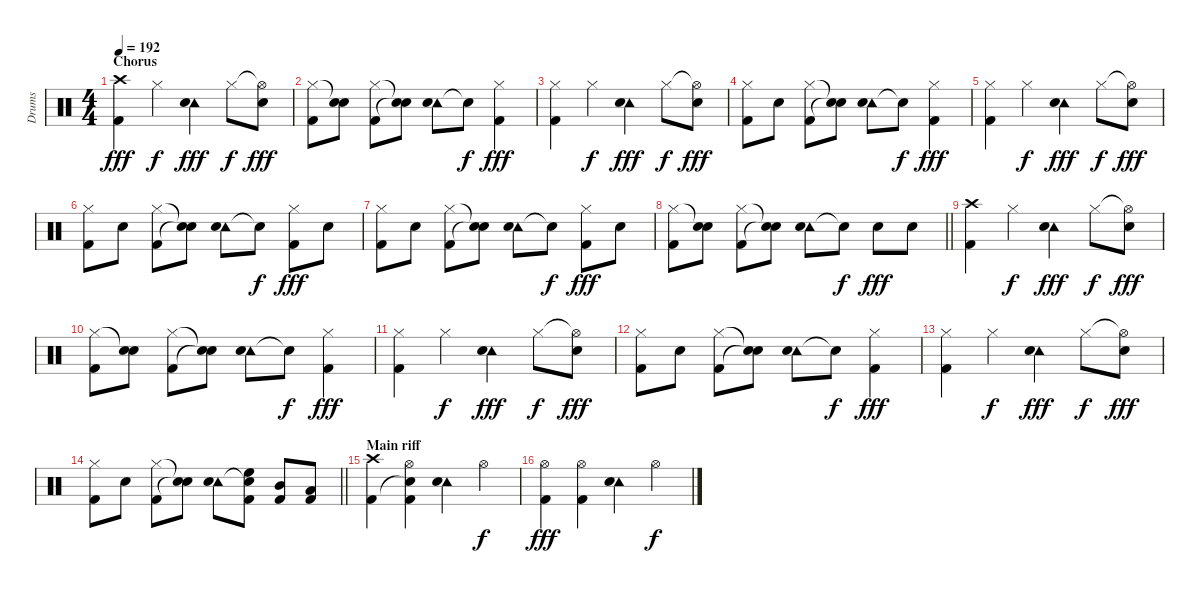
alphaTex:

\track ("Drums" "Drums") {instrument percussion}
\staff {score}
\articulation defaults
\ts (4 4)
\section ("" "Chorus")
\tempo 192
\clef neutral
\ks c
("Crash high (hit)" "Kick (hit) 2").4{dy fff} "Hi-Hat (closed)".4{dy f} ("Tambourine (hit)" "Snare (hit) 2").4{dy fff} "Hi-Hat (closed)".8{dy f} ("Hi-Hat (open)"{t} "Snare (hit) 2").8{dy fff} |
("Hi-Hat (closed)" "Kick (hit) 2").8 ("Snare (hit)"{t} "Snare (hit) 2").8 ("Hi-Hat (closed)" "Kick (hit) 2").8 ("Snare (hit)"{t} "Snare (hit)"{t}).8 ("Tambourine (hit)" "Snare (hit) 2").8 "Snare (hit)"{t}.8{dy f} ("Hi-Hat (closed)" "Kick (hit) 2").4{dy fff} |
("Hi-Hat (closed)" "Kick (hit) 2").4 "Hi-Hat (closed)".4{dy f} ("Tambourine (hit)" "Snare (hit) 2").4{dy fff} "Hi-Hat (closed)".8{dy f} ("Hi-Hat (open)"{t} "Snare (hit) 2").8{dy fff} |
("Hi-Hat (closed)" "Kick (hit) 2").8 "Snare (hit) 2".8 ("Hi-Hat (closed)" "Kick (hit) 2").8 ("Snare (hit)"{t} "Snare (hit)"{t}).8 ("Tambourine (hit)" "Snare (hit) 2").8 "Snare (hit)"{t}.8{dy f} ("Hi-Hat (closed)" "Kick (hit) 2").4{dy fff} |
("Hi-Hat (closed)" "Kick (hit) 2").4 "Hi-Hat (closed)".4{dy f} ("Tambourine (hit)" "Snare (hit) 2").4{dy fff} "Hi-Hat (closed)".8{dy f} ("Hi-Hat (open)"{t} "Snare (hit) 2").8{dy fff} |
("Hi-Hat (closed)" "Kick (hit) 2").8 "Snare (hit) 2".8 ("Hi-Hat (closed)" "Kick (hit) 2").8 ("Snare (hit)"{t} "Snare (hit)"{t}).8 ("Tambourine (hit)" "Snare (hit) 2").8 "Snare (hit)"{t}.8{dy f} ("Hi-Hat (closed)" "Kick (hit) 2").8{dy fff} "Snare (hit) 2".8 |
("Hi-Hat (closed)" "Kick (hit) 2").8 "Snare (hit) 2".8 ("Hi-Hat (closed)" "Kick (hit) 2").8 ("Snare (hit)"{t} "Snare (hit)"{t}).8 ("Tambourine (hit)" "Snare (hit) 2").8 "Snare (hit)"{t}.8{dy f} ("Hi-Hat (closed)" "Kick (hit) 2").8{dy fff} "Snare (hit) 2".8 |
\barLineRight lightlight
("Hi-Hat (closed)" "Kick (hit) 2").8 ("Snare (hit)"{t} "Snare (hit) 2").8 ("Hi-Hat (closed)" "Kick (hit) 2").8 ("Snare (hit)"{t} "Snare (hit)"{t}).8 ("Tambourine (hit)" "Snare (hit) 2").8 "Snare (hit)"{t}.8{dy f} "Snare (hit) 2".8{dy fff} "Snare (hit) 2".8 |
("Crash high (hit)" "Kick (hit) 2").4 "Hi-Hat (closed)".4{dy f} ("Tambourine (hit)" "Snare (hit) 2").4{dy fff} "Hi-Hat (closed)".8{dy f} ("Hi-Hat (open)"{t} "Snare (hit) 2").8{dy fff} |
("Hi-Hat (closed)" "Kick (hit) 2").8 ("Snare (hit)"{t} "Snare (hit) 2").8 ("Hi-Hat (closed)" "Kick (hit) 2").8 ("Snare (hit)"{t} "Snare (hit)"{t}).8 ("Tambourine (hit)" "Snare (hit) 2").8 "Snare (hit)"{t}.8{dy f} ("Hi-Hat (closed)" "Kick (hit) 2").4{dy fff} |
("Hi-Hat (closed)" "Kick (hit) 2").4 "Hi-Hat (closed)".4{dy f} ("Tambourine (hit)" "Snare (hit) 2").4{dy fff} "Hi-Hat (closed)".8{dy f} ("Hi-Hat (open)"{t} "Snare (hit) 2").8{dy fff} |
("Hi-Hat (closed)" "Kick (hit) 2").8 "Snare (hit) 2".8 ("Hi-Hat (closed)" "Kick (hit) 2").8 ("Snare (hit)"{t} "Snare (hit)"{t}).8 ("Tambourine (hit)" "Snare (hit) 2").8 "Snare (hit)"{t}.8{dy f} ("Hi-Hat (closed)" "Kick (hit) 2").4{dy fff} |
("Hi-Hat (closed)" "Kick (hit) 2").4 "Hi-Hat (closed)".4{dy f} ("Tambourine (hit)" "Snare (hit) 2").4{dy fff} "Hi-Hat (closed)".8{dy f} ("Hi-Hat (open)"{t} "Snare (hit) 2").8{dy fff} |
\barLineRight lightlight
("Hi-Hat (closed)" "Kick (hit) 2").8 "Snare (hit) 2".8 ("Hi-Hat (closed)" "Kick (hit) 2").8 ("Snare (hit)"{t} "Snare (hit)"{t}).8 ("Tambourine (hit)" "Snare (hit) 2").8 ("Snare (hit)"{t} "High Floor Tom (hit)" "Kick (hit) 2").8 ("Mid Tom (hit)" "Kick (hit) 2").8 ("Low Tom (hit)" "Kick (hit) 2").8 |
\section ("" "Main riff")
("Crash high (hit)" "Kick (hit) 2").4 ("Hi-Hat (open)" "Snare (hit)"{t} "Kick (hit) 2").4 ("Tambourine (hit)" "Snare (hit) 2").4 "Hi-Hat (open)".4{dy f} |
("Hi-Hat (open)" "Kick (hit) 2").4{dy fff} ("Hi-Hat (open)" "Kick (hit) 2").4 ("Tambourine (hit)" "Snare (hit) 2").4 "Hi-Hat (open)".4{dy f}
